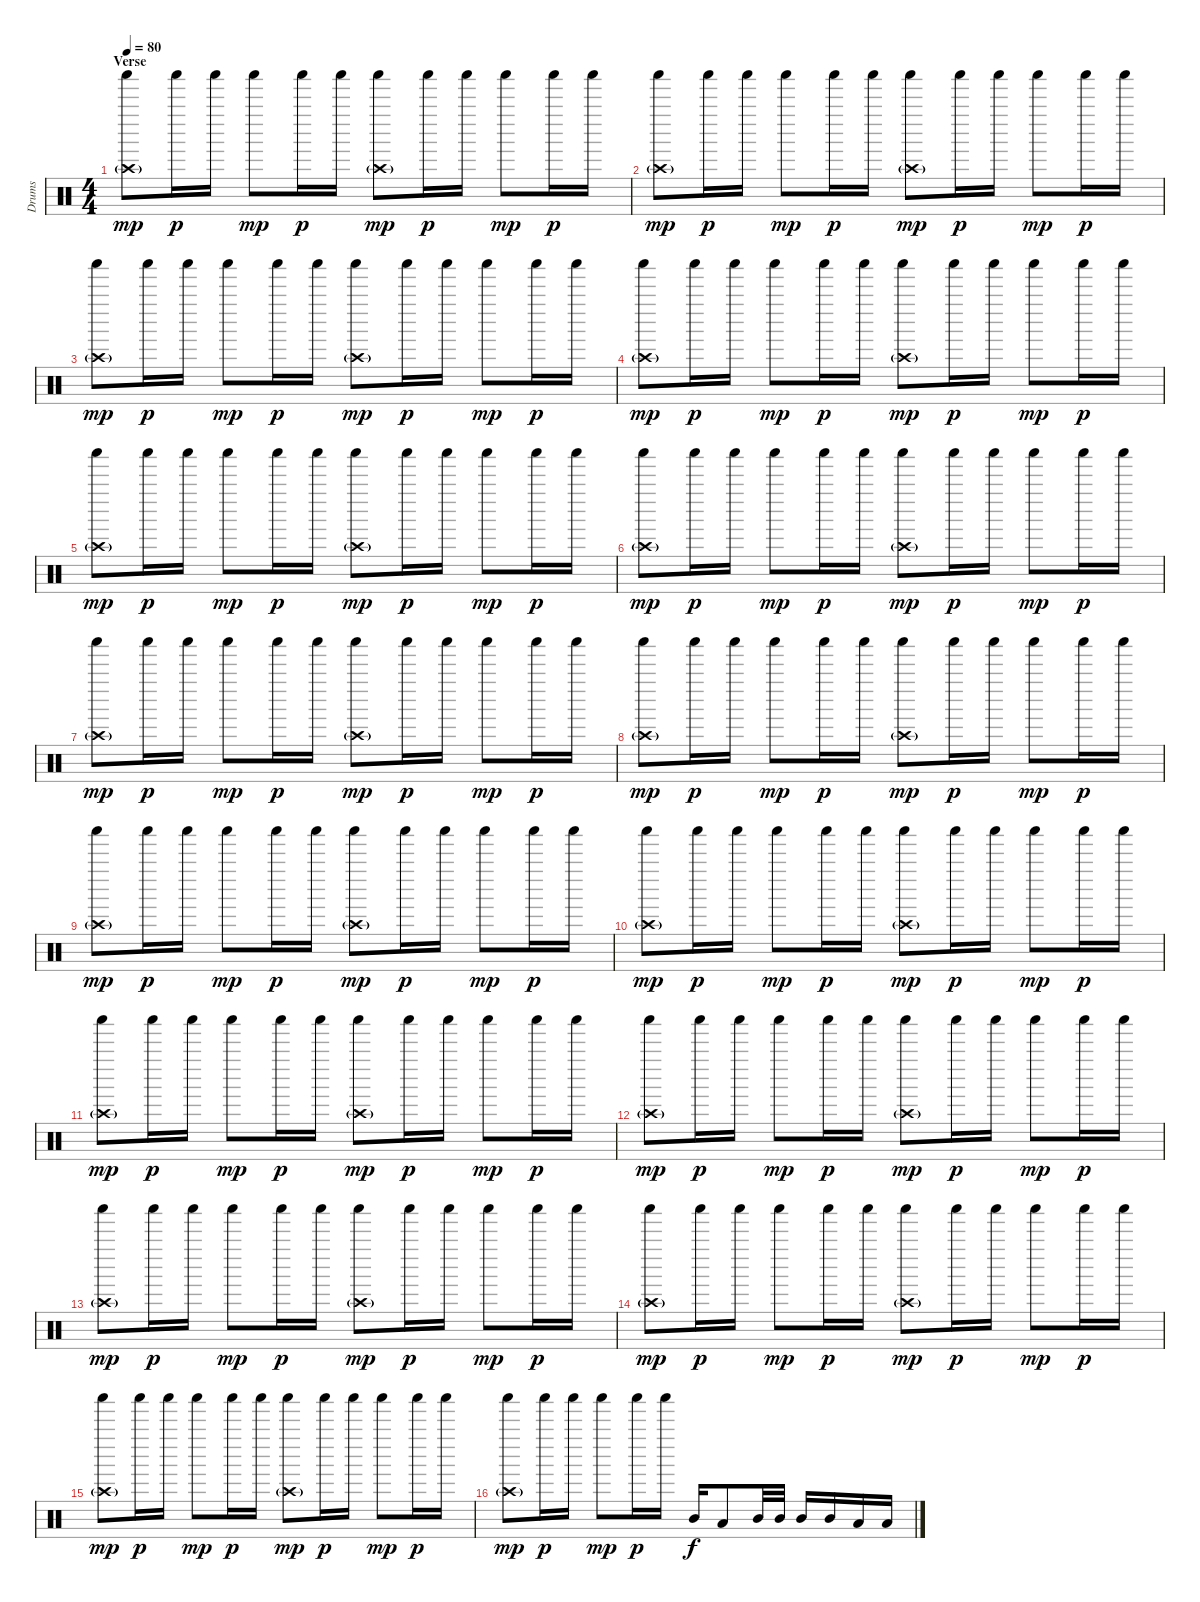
\track ("Drums" "Drums") {instrument percussion}
\staff {score}
\articulation defaults
\ts (4 4)
\section ("" "Verse")
\tempo 80
\clef neutral
\ks c
("Crash high (hit)"{g} "Shaker (hit)").8{dy mp} "Shaker (hit)".16{dy p} "Shaker (hit)".16 "Shaker (hit)".8{dy mp} "Shaker (hit)".16{dy p} "Shaker (hit)".16 ("Crash high (hit)"{g} "Shaker (hit)").8{dy mp} "Shaker (hit)".16{dy p} "Shaker (hit)".16 "Shaker (hit)".8{dy mp} "Shaker (hit)".16{dy p} "Shaker (hit)".16 |
("Crash high (hit)"{g} "Shaker (hit)").8{dy mp} "Shaker (hit)".16{dy p} "Shaker (hit)".16 "Shaker (hit)".8{dy mp} "Shaker (hit)".16{dy p} "Shaker (hit)".16 ("Crash high (hit)"{g} "Shaker (hit)").8{dy mp} "Shaker (hit)".16{dy p} "Shaker (hit)".16 "Shaker (hit)".8{dy mp} "Shaker (hit)".16{dy p} "Shaker (hit)".16 |
("Crash high (hit)"{g} "Shaker (hit)").8{dy mp} "Shaker (hit)".16{dy p} "Shaker (hit)".16 "Shaker (hit)".8{dy mp} "Shaker (hit)".16{dy p} "Shaker (hit)".16 ("Crash high (hit)"{g} "Shaker (hit)").8{dy mp} "Shaker (hit)".16{dy p} "Shaker (hit)".16 "Shaker (hit)".8{dy mp} "Shaker (hit)".16{dy p} "Shaker (hit)".16 |
("Crash high (hit)"{g} "Shaker (hit)").8{dy mp} "Shaker (hit)".16{dy p} "Shaker (hit)".16 "Shaker (hit)".8{dy mp} "Shaker (hit)".16{dy p} "Shaker (hit)".16 ("Crash high (hit)"{g} "Shaker (hit)").8{dy mp} "Shaker (hit)".16{dy p} "Shaker (hit)".16 "Shaker (hit)".8{dy mp} "Shaker (hit)".16{dy p} "Shaker (hit)".16 |
("Crash high (hit)"{g} "Shaker (hit)").8{dy mp} "Shaker (hit)".16{dy p} "Shaker (hit)".16 "Shaker (hit)".8{dy mp} "Shaker (hit)".16{dy p} "Shaker (hit)".16 ("Crash high (hit)"{g} "Shaker (hit)").8{dy mp} "Shaker (hit)".16{dy p} "Shaker (hit)".16 "Shaker (hit)".8{dy mp} "Shaker (hit)".16{dy p} "Shaker (hit)".16 |
("Crash high (hit)"{g} "Shaker (hit)").8{dy mp} "Shaker (hit)".16{dy p} "Shaker (hit)".16 "Shaker (hit)".8{dy mp} "Shaker (hit)".16{dy p} "Shaker (hit)".16 ("Crash high (hit)"{g} "Shaker (hit)").8{dy mp} "Shaker (hit)".16{dy p} "Shaker (hit)".16 "Shaker (hit)".8{dy mp} "Shaker (hit)".16{dy p} "Shaker (hit)".16 |
("Crash high (hit)"{g} "Shaker (hit)").8{dy mp} "Shaker (hit)".16{dy p} "Shaker (hit)".16 "Shaker (hit)".8{dy mp} "Shaker (hit)".16{dy p} "Shaker (hit)".16 ("Crash high (hit)"{g} "Shaker (hit)").8{dy mp} "Shaker (hit)".16{dy p} "Shaker (hit)".16 "Shaker (hit)".8{dy mp} "Shaker (hit)".16{dy p} "Shaker (hit)".16 |
("Crash high (hit)"{g} "Shaker (hit)").8{dy mp} "Shaker (hit)".16{dy p} "Shaker (hit)".16 "Shaker (hit)".8{dy mp} "Shaker (hit)".16{dy p} "Shaker (hit)".16 ("Crash high (hit)"{g} "Shaker (hit)").8{dy mp} "Shaker (hit)".16{dy p} "Shaker (hit)".16 "Shaker (hit)".8{dy mp} "Shaker (hit)".16{dy p} "Shaker (hit)".16 |
("Crash high (hit)"{g} "Shaker (hit)").8{dy mp} "Shaker (hit)".16{dy p} "Shaker (hit)".16 "Shaker (hit)".8{dy mp} "Shaker (hit)".16{dy p} "Shaker (hit)".16 ("Crash high (hit)"{g} "Shaker (hit)").8{dy mp} "Shaker (hit)".16{dy p} "Shaker (hit)".16 "Shaker (hit)".8{dy mp} "Shaker (hit)".16{dy p} "Shaker (hit)".16 |
("Crash high (hit)"{g} "Shaker (hit)").8{dy mp} "Shaker (hit)".16{dy p} "Shaker (hit)".16 "Shaker (hit)".8{dy mp} "Shaker (hit)".16{dy p} "Shaker (hit)".16 ("Crash high (hit)"{g} "Shaker (hit)").8{dy mp} "Shaker (hit)".16{dy p} "Shaker (hit)".16 "Shaker (hit)".8{dy mp} "Shaker (hit)".16{dy p} "Shaker (hit)".16 |
("Crash high (hit)"{g} "Shaker (hit)").8{dy mp} "Shaker (hit)".16{dy p} "Shaker (hit)".16 "Shaker (hit)".8{dy mp} "Shaker (hit)".16{dy p} "Shaker (hit)".16 ("Crash high (hit)"{g} "Shaker (hit)").8{dy mp} "Shaker (hit)".16{dy p} "Shaker (hit)".16 "Shaker (hit)".8{dy mp} "Shaker (hit)".16{dy p} "Shaker (hit)".16 |
("Crash high (hit)"{g} "Shaker (hit)").8{dy mp} "Shaker (hit)".16{dy p} "Shaker (hit)".16 "Shaker (hit)".8{dy mp} "Shaker (hit)".16{dy p} "Shaker (hit)".16 ("Crash high (hit)"{g} "Shaker (hit)").8{dy mp} "Shaker (hit)".16{dy p} "Shaker (hit)".16 "Shaker (hit)".8{dy mp} "Shaker (hit)".16{dy p} "Shaker (hit)".16 |
("Crash high (hit)"{g} "Shaker (hit)").8{dy mp} "Shaker (hit)".16{dy p} "Shaker (hit)".16 "Shaker (hit)".8{dy mp} "Shaker (hit)".16{dy p} "Shaker (hit)".16 ("Crash high (hit)"{g} "Shaker (hit)").8{dy mp} "Shaker (hit)".16{dy p} "Shaker (hit)".16 "Shaker (hit)".8{dy mp} "Shaker (hit)".16{dy p} "Shaker (hit)".16 |
("Crash high (hit)"{g} "Shaker (hit)").8{dy mp} "Shaker (hit)".16{dy p} "Shaker (hit)".16 "Shaker (hit)".8{dy mp} "Shaker (hit)".16{dy p} "Shaker (hit)".16 ("Crash high (hit)"{g} "Shaker (hit)").8{dy mp} "Shaker (hit)".16{dy p} "Shaker (hit)".16 "Shaker (hit)".8{dy mp} "Shaker (hit)".16{dy p} "Shaker (hit)".16 |
("Crash high (hit)"{g} "Shaker (hit)").8{dy mp} "Shaker (hit)".16{dy p} "Shaker (hit)".16 "Shaker (hit)".8{dy mp} "Shaker (hit)".16{dy p} "Shaker (hit)".16 ("Crash high (hit)"{g} "Shaker (hit)").8{dy mp} "Shaker (hit)".16{dy p} "Shaker (hit)".16 "Shaker (hit)".8{dy mp} "Shaker (hit)".16{dy p} "Shaker (hit)".16 |
("Crash high (hit)"{g} "Shaker (hit)").8{dy mp} "Shaker (hit)".16{dy p} "Shaker (hit)".16 "Shaker (hit)".8{dy mp} "Shaker (hit)".16{dy p} "Shaker (hit)".16 "Mid Tom (hit)".16{dy f} "Low Tom (hit)".8 "Mid Tom (hit)".32 "Mid Tom (hit)".32 "Mid Tom (hit)".16 "Mid Tom (hit)".16 "Low Tom (hit)".16 "Low Tom (hit)".16
